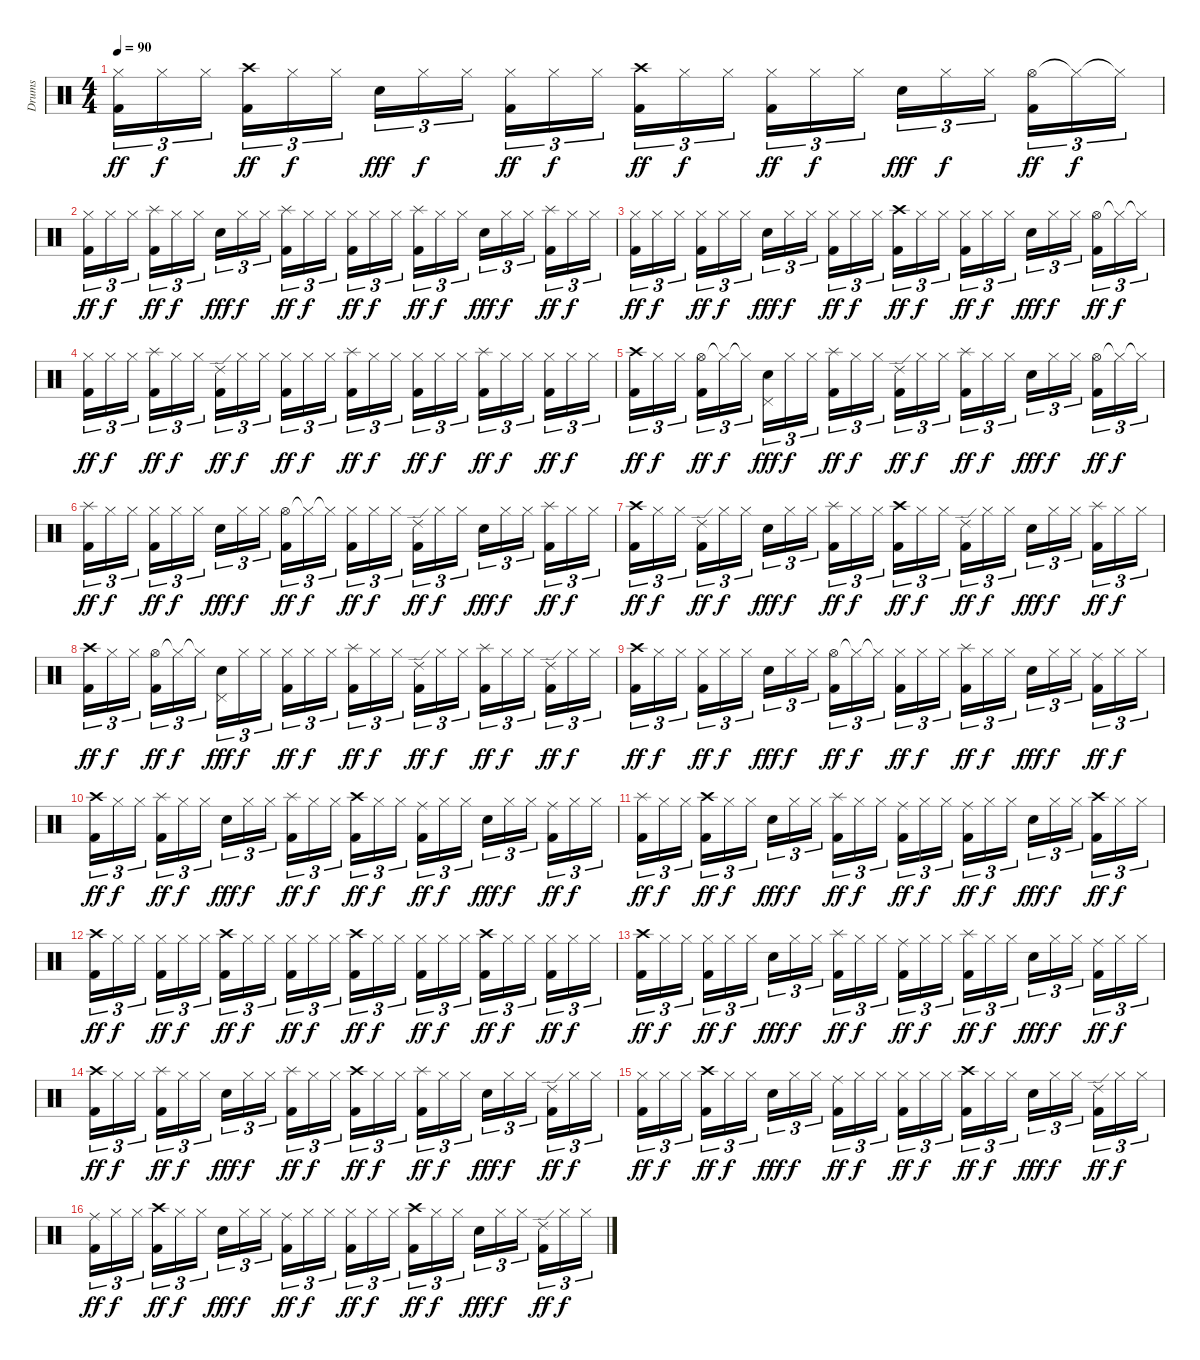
\track ("Drums" "Drums") {instrument percussion}
\staff {score}
\articulation defaults
\ts (4 4)
\tempo 90
\clef neutral
\ks c
("Hi-Hat (closed)" "Kick (hit) 2").16{tu (3 2) dy ff} "Hi-Hat (closed)".16{tu (3 2) dy f} "Hi-Hat (closed)".16{tu (3 2) beam splitsecondary} ("Crash high (hit)" "Kick (hit) 2").16{tu (3 2) dy ff} "Hi-Hat (closed)".16{tu (3 2) dy f} "Hi-Hat (closed)".16{tu (3 2)} "Snare (hit) 2".16{tu (3 2) dy fff} "Hi-Hat (closed)".16{tu (3 2) dy f} "Hi-Hat (closed)".16{tu (3 2) beam splitsecondary} ("Hi-Hat (closed)" "Kick (hit) 2").16{tu (3 2) dy ff} "Hi-Hat (closed)".16{tu (3 2) dy f} "Hi-Hat (closed)".16{tu (3 2)} ("Crash high (hit)" "Kick (hit) 2").16{tu (3 2) dy ff} "Hi-Hat (closed)".16{tu (3 2) dy f} "Hi-Hat (closed)".16{tu (3 2) beam splitsecondary} ("Hi-Hat (closed)" "Kick (hit) 2").16{tu (3 2) dy ff} "Hi-Hat (closed)".16{tu (3 2) dy f} "Hi-Hat (closed)".16{tu (3 2)} "Snare (hit) 2".16{tu (3 2) dy fff} "Hi-Hat (closed)".16{tu (3 2) dy f} "Hi-Hat (closed)".16{tu (3 2) beam splitsecondary} ("Hi-Hat (open)" "Kick (hit) 2").16{tu (3 2) dy ff} "Hi-Hat (closed)"{t}.16{tu (3 2) dy f} "Hi-Hat (closed)"{t}.16{tu (3 2)} |
("Hi-Hat (closed)" "Kick (hit) 2").16{tu (3 2) dy ff} "Hi-Hat (closed)".16{tu (3 2) dy f} "Hi-Hat (closed)".16{tu (3 2) beam splitsecondary} ("Splash (hit)" "Kick (hit) 2").16{tu (3 2) dy ff} "Hi-Hat (closed)".16{tu (3 2) dy f} "Hi-Hat (closed)".16{tu (3 2)} "Snare (hit) 2".16{tu (3 2) dy fff} "Hi-Hat (closed)".16{tu (3 2) dy f} "Hi-Hat (closed)".16{tu (3 2) beam splitsecondary} ("Splash (hit)" "Kick (hit) 2").16{tu (3 2) dy ff} "Hi-Hat (closed)".16{tu (3 2) dy f} "Hi-Hat (closed)".16{tu (3 2)} ("Hi-Hat (closed)" "Kick (hit) 2").16{tu (3 2) dy ff} "Hi-Hat (closed)".16{tu (3 2) dy f} "Hi-Hat (closed)".16{tu (3 2) beam splitsecondary} ("Splash (hit)" "Kick (hit) 2").16{tu (3 2) dy ff} "Hi-Hat (closed)".16{tu (3 2) dy f} "Hi-Hat (closed)".16{tu (3 2)} "Snare (hit) 2".16{tu (3 2) dy fff} "Hi-Hat (closed)".16{tu (3 2) dy f} "Hi-Hat (closed)".16{tu (3 2) beam splitsecondary} ("Splash (hit)" "Kick (hit) 2").16{tu (3 2) dy ff} "Hi-Hat (closed)".16{tu (3 2) dy f} "Hi-Hat (closed)".16{tu (3 2)} |
("Hi-Hat (closed)" "Kick (hit) 2").16{tu (3 2) dy ff} "Hi-Hat (closed)".16{tu (3 2) dy f} "Hi-Hat (closed)".16{tu (3 2) beam splitsecondary} ("Hi-Hat (closed)" "Kick (hit) 2").16{tu (3 2) dy ff} "Hi-Hat (closed)".16{tu (3 2) dy f} "Hi-Hat (closed)".16{tu (3 2)} "Snare (hit) 2".16{tu (3 2) dy fff} "Hi-Hat (closed)".16{tu (3 2) dy f} "Hi-Hat (closed)".16{tu (3 2) beam splitsecondary} ("Hi-Hat (closed)" "Kick (hit) 2").16{tu (3 2) dy ff} "Hi-Hat (closed)".16{tu (3 2) dy f} "Hi-Hat (closed)".16{tu (3 2)} ("Crash high (hit)" "Kick (hit) 2").16{tu (3 2) dy ff} "Hi-Hat (closed)".16{tu (3 2) dy f} "Hi-Hat (closed)".16{tu (3 2) beam splitsecondary} ("Hi-Hat (closed)" "Kick (hit) 2").16{tu (3 2) dy ff} "Hi-Hat (closed)".16{tu (3 2) dy f} "Hi-Hat (closed)".16{tu (3 2)} "Snare (hit) 2".16{tu (3 2) dy fff} "Hi-Hat (closed)".16{tu (3 2) dy f} "Hi-Hat (closed)".16{tu (3 2) beam splitsecondary} ("Hi-Hat (open)" "Kick (hit) 2").16{tu (3 2) dy ff} "Hi-Hat (closed)"{t}.16{tu (3 2) dy f} "Hi-Hat (closed)"{t}.16{tu (3 2)} |
("Hi-Hat (closed)" "Kick (hit) 2").16{tu (3 2) dy ff} "Hi-Hat (closed)".16{tu (3 2) dy f} "Hi-Hat (closed)".16{tu (3 2) beam splitsecondary} ("Splash (hit)" "Kick (hit) 2").16{tu (3 2) dy ff} "Hi-Hat (closed)".16{tu (3 2) dy f} "Hi-Hat (closed)".16{tu (3 2)} ("Ride (edge) 2" "Kick (hit) 2").16{tu (3 2) dy ff} "Hi-Hat (closed)".16{tu (3 2) dy f} "Hi-Hat (closed)".16{tu (3 2) beam splitsecondary} ("Hi-Hat (closed)" "Kick (hit) 2").16{tu (3 2) dy ff} "Hi-Hat (closed)".16{tu (3 2) dy f} "Hi-Hat (closed)".16{tu (3 2)} ("Splash (hit)" "Kick (hit) 2").16{tu (3 2) dy ff} "Hi-Hat (closed)".16{tu (3 2) dy f} "Hi-Hat (closed)".16{tu (3 2) beam splitsecondary} ("Hi-Hat (closed)" "Kick (hit) 2").16{tu (3 2) dy ff} "Hi-Hat (closed)".16{tu (3 2) dy f} "Hi-Hat (closed)".16{tu (3 2)} ("Splash (hit)" "Kick (hit) 2").16{tu (3 2) dy ff} "Hi-Hat (closed)".16{tu (3 2) dy f} "Hi-Hat (closed)".16{tu (3 2) beam splitsecondary} ("Hi-Hat (closed)" "Kick (hit) 2").16{tu (3 2) dy ff} "Hi-Hat (closed)".16{tu (3 2) dy f} "Hi-Hat (closed)".16{tu (3 2)} |
("Crash high (hit)" "Kick (hit) 2").16{tu (3 2) dy ff} "Hi-Hat (closed)".16{tu (3 2) dy f} "Hi-Hat (closed)".16{tu (3 2) beam splitsecondary} ("Hi-Hat (open)" "Kick (hit) 2").16{tu (3 2) dy ff} "Hi-Hat (closed)"{t}.16{tu (3 2) dy f} "Hi-Hat (closed)"{t}.16{tu (3 2)} ("Pedal Hi-Hat (hit)" "Snare (hit) 2").16{tu (3 2) dy fff} "Hi-Hat (closed)".16{tu (3 2) dy f} "Hi-Hat (closed)".16{tu (3 2) beam splitsecondary} ("Splash (hit)" "Kick (hit) 2").16{tu (3 2) dy ff} "Hi-Hat (closed)".16{tu (3 2) dy f} "Hi-Hat (closed)".16{tu (3 2)} ("Ride (edge) 2" "Kick (hit) 2").16{tu (3 2) dy ff} "Hi-Hat (closed)".16{tu (3 2) dy f} "Hi-Hat (closed)".16{tu (3 2) beam splitsecondary} ("Splash (hit)" "Kick (hit) 2").16{tu (3 2) dy ff} "Hi-Hat (closed)".16{tu (3 2) dy f} "Hi-Hat (closed)".16{tu (3 2)} "Snare (hit) 2".16{tu (3 2) dy fff} "Hi-Hat (closed)".16{tu (3 2) dy f} "Hi-Hat (closed)".16{tu (3 2) beam splitsecondary} ("Hi-Hat (open)" "Kick (hit) 2").16{tu (3 2) dy ff} "Hi-Hat (closed)"{t}.16{tu (3 2) dy f} "Hi-Hat (closed)"{t}.16{tu (3 2)} |
("Splash (hit)" "Kick (hit) 2").16{tu (3 2) dy ff} "Hi-Hat (closed)".16{tu (3 2) dy f} "Hi-Hat (closed)".16{tu (3 2) beam splitsecondary} ("Hi-Hat (closed)" "Kick (hit) 2").16{tu (3 2) dy ff} "Hi-Hat (closed)".16{tu (3 2) dy f} "Hi-Hat (closed)".16{tu (3 2)} "Snare (hit) 2".16{tu (3 2) dy fff} "Hi-Hat (closed)".16{tu (3 2) dy f} "Hi-Hat (closed)".16{tu (3 2) beam splitsecondary} ("Hi-Hat (open)" "Kick (hit) 2").16{tu (3 2) dy ff} "Hi-Hat (closed)"{t}.16{tu (3 2) dy f} "Hi-Hat (closed)"{t}.16{tu (3 2)} ("Hi-Hat (closed)" "Kick (hit) 2").16{tu (3 2) dy ff} "Hi-Hat (closed)".16{tu (3 2) dy f} "Hi-Hat (closed)".16{tu (3 2) beam splitsecondary} ("Ride (edge) 2" "Kick (hit) 2").16{tu (3 2) dy ff} "Hi-Hat (closed)".16{tu (3 2) dy f} "Hi-Hat (closed)".16{tu (3 2)} "Snare (hit) 2".16{tu (3 2) dy fff} "Hi-Hat (closed)".16{tu (3 2) dy f} "Hi-Hat (closed)".16{tu (3 2) beam splitsecondary} ("Splash (hit)" "Kick (hit) 2").16{tu (3 2) dy ff} "Hi-Hat (closed)".16{tu (3 2) dy f} "Hi-Hat (closed)".16{tu (3 2)} |
("Crash high (hit)" "Kick (hit) 2").16{tu (3 2) dy ff} "Hi-Hat (closed)".16{tu (3 2) dy f} "Hi-Hat (closed)".16{tu (3 2) beam splitsecondary} ("Ride (edge) 2" "Kick (hit) 2").16{tu (3 2) dy ff} "Hi-Hat (closed)".16{tu (3 2) dy f} "Hi-Hat (closed)".16{tu (3 2)} "Snare (hit) 2".16{tu (3 2) dy fff} "Hi-Hat (closed)".16{tu (3 2) dy f} "Hi-Hat (closed)".16{tu (3 2) beam splitsecondary} ("Splash (hit)" "Kick (hit) 2").16{tu (3 2) dy ff} "Hi-Hat (closed)".16{tu (3 2) dy f} "Hi-Hat (closed)".16{tu (3 2)} ("Crash high (hit)" "Kick (hit) 2").16{tu (3 2) dy ff} "Hi-Hat (closed)".16{tu (3 2) dy f} "Hi-Hat (closed)".16{tu (3 2) beam splitsecondary} ("Ride (edge) 2" "Kick (hit) 2").16{tu (3 2) dy ff} "Hi-Hat (closed)".16{tu (3 2) dy f} "Hi-Hat (closed)".16{tu (3 2)} "Snare (hit) 2".16{tu (3 2) dy fff} "Hi-Hat (closed)".16{tu (3 2) dy f} "Hi-Hat (closed)".16{tu (3 2) beam splitsecondary} ("Splash (hit)" "Kick (hit) 2").16{tu (3 2) dy ff} "Hi-Hat (closed)".16{tu (3 2) dy f} "Hi-Hat (closed)".16{tu (3 2)} |
("Crash high (hit)" "Kick (hit) 2").16{tu (3 2) dy ff} "Hi-Hat (closed)".16{tu (3 2) dy f} "Hi-Hat (closed)".16{tu (3 2) beam splitsecondary} ("Hi-Hat (open)" "Kick (hit) 2").16{tu (3 2) dy ff} "Hi-Hat (closed)"{t}.16{tu (3 2) dy f} "Hi-Hat (closed)"{t}.16{tu (3 2)} ("Pedal Hi-Hat (hit)" "Snare (hit) 2").16{tu (3 2) dy fff} "Hi-Hat (closed)".16{tu (3 2) dy f} "Hi-Hat (closed)".16{tu (3 2) beam splitsecondary} ("Hi-Hat (closed)" "Kick (hit) 2").16{tu (3 2) dy ff} "Hi-Hat (closed)".16{tu (3 2) dy f} "Hi-Hat (closed)".16{tu (3 2)} ("Splash (hit)" "Kick (hit) 2").16{tu (3 2) dy ff} "Hi-Hat (closed)".16{tu (3 2) dy f} "Hi-Hat (closed)".16{tu (3 2) beam splitsecondary} ("Ride (edge) 2" "Kick (hit) 2").16{tu (3 2) dy ff} "Hi-Hat (closed)".16{tu (3 2) dy f} "Hi-Hat (closed)".16{tu (3 2)} ("Splash (hit)" "Kick (hit) 2").16{tu (3 2) dy ff} "Hi-Hat (closed)".16{tu (3 2) dy f} "Hi-Hat (closed)".16{tu (3 2) beam splitsecondary} ("Ride (edge) 2" "Kick (hit) 2").16{tu (3 2) dy ff} "Hi-Hat (closed)".16{tu (3 2) dy f} "Hi-Hat (closed)".16{tu (3 2)} |
("Crash high (hit)" "Kick (hit) 2").16{tu (3 2) dy ff} "Hi-Hat (closed)".16{tu (3 2) dy f} "Hi-Hat (closed)".16{tu (3 2) beam splitsecondary} ("Hi-Hat (closed)" "Kick (hit) 2").16{tu (3 2) dy ff} "Hi-Hat (closed)".16{tu (3 2) dy f} "Hi-Hat (closed)".16{tu (3 2)} "Snare (hit) 2".16{tu (3 2) dy fff} "Hi-Hat (closed)".16{tu (3 2) dy f} "Hi-Hat (closed)".16{tu (3 2) beam splitsecondary} ("Hi-Hat (open)" "Kick (hit) 2").16{tu (3 2) dy ff} "Hi-Hat (closed)"{t}.16{tu (3 2) dy f} "Hi-Hat (closed)"{t}.16{tu (3 2)} ("Hi-Hat (closed)" "Kick (hit) 2").16{tu (3 2) dy ff} "Hi-Hat (closed)".16{tu (3 2) dy f} "Hi-Hat (closed)".16{tu (3 2) beam splitsecondary} ("Splash (hit)" "Kick (hit) 2").16{tu (3 2) dy ff} "Hi-Hat (closed)".16{tu (3 2) dy f} "Hi-Hat (closed)".16{tu (3 2)} "Snare (hit) 2".16{tu (3 2) dy fff} "Hi-Hat (closed)".16{tu (3 2) dy f} "Hi-Hat (closed)".16{tu (3 2) beam splitsecondary} ("Ride (middle)" "Kick (hit) 2").16{tu (3 2) dy ff} "Hi-Hat (closed)".16{tu (3 2) dy f} "Hi-Hat (closed)".16{tu (3 2)} |
("Crash high (hit)" "Kick (hit) 2").16{tu (3 2) dy ff} "Hi-Hat (closed)".16{tu (3 2) dy f} "Hi-Hat (closed)".16{tu (3 2) beam splitsecondary} ("Splash (hit)" "Kick (hit) 2").16{tu (3 2) dy ff} "Hi-Hat (closed)".16{tu (3 2) dy f} "Hi-Hat (closed)".16{tu (3 2)} "Snare (hit) 2".16{tu (3 2) dy fff} "Hi-Hat (closed)".16{tu (3 2) dy f} "Hi-Hat (closed)".16{tu (3 2) beam splitsecondary} ("Splash (hit)" "Kick (hit) 2").16{tu (3 2) dy ff} "Hi-Hat (closed)".16{tu (3 2) dy f} "Hi-Hat (closed)".16{tu (3 2)} ("Crash high (hit)" "Kick (hit) 2").16{tu (3 2) dy ff} "Hi-Hat (closed)".16{tu (3 2) dy f} "Hi-Hat (closed)".16{tu (3 2) beam splitsecondary} ("Ride (middle)" "Kick (hit) 2").16{tu (3 2) dy ff} "Hi-Hat (closed)".16{tu (3 2) dy f} "Hi-Hat (closed)".16{tu (3 2)} "Snare (hit) 2".16{tu (3 2) dy fff} "Hi-Hat (closed)".16{tu (3 2) dy f} "Hi-Hat (closed)".16{tu (3 2) beam splitsecondary} ("Ride (middle)" "Kick (hit) 2").16{tu (3 2) dy ff} "Hi-Hat (closed)".16{tu (3 2) dy f} "Hi-Hat (closed)".16{tu (3 2)} |
("Splash (hit)" "Kick (hit) 2").16{tu (3 2) dy ff} "Hi-Hat (closed)".16{tu (3 2) dy f} "Hi-Hat (closed)".16{tu (3 2) beam splitsecondary} ("Crash high (hit)" "Kick (hit) 2").16{tu (3 2) dy ff} "Hi-Hat (closed)".16{tu (3 2) dy f} "Hi-Hat (closed)".16{tu (3 2)} "Snare (hit) 2".16{tu (3 2) dy fff} "Hi-Hat (closed)".16{tu (3 2) dy f} "Hi-Hat (closed)".16{tu (3 2) beam splitsecondary} ("Splash (hit)" "Kick (hit) 2").16{tu (3 2) dy ff} "Hi-Hat (closed)".16{tu (3 2) dy f} "Hi-Hat (closed)".16{tu (3 2)} ("Ride (middle)" "Kick (hit) 2").16{tu (3 2) dy ff} "Hi-Hat (closed)".16{tu (3 2) dy f} "Hi-Hat (closed)".16{tu (3 2) beam splitsecondary} ("Ride (middle)" "Kick (hit) 2").16{tu (3 2) dy ff} "Hi-Hat (closed)".16{tu (3 2) dy f} "Hi-Hat (closed)".16{tu (3 2)} "Snare (hit) 2".16{tu (3 2) dy fff} "Hi-Hat (closed)".16{tu (3 2) dy f} "Hi-Hat (closed)".16{tu (3 2) beam splitsecondary} ("Crash high (hit)" "Kick (hit) 2").16{tu (3 2) dy ff} "Hi-Hat (closed)".16{tu (3 2) dy f} "Hi-Hat (closed)".16{tu (3 2)} |
("Crash high (hit)" "Kick (hit) 2").16{tu (3 2) dy ff} "Hi-Hat (closed)".16{tu (3 2) dy f} "Hi-Hat (closed)".16{tu (3 2) beam splitsecondary} ("Hi-Hat (closed)" "Kick (hit) 2").16{tu (3 2) dy ff} "Hi-Hat (closed)".16{tu (3 2) dy f} "Hi-Hat (closed)".16{tu (3 2)} ("Crash high (hit)" "Kick (hit) 2").16{tu (3 2) dy ff} "Hi-Hat (closed)".16{tu (3 2) dy f} "Hi-Hat (closed)".16{tu (3 2) beam splitsecondary} ("Hi-Hat (closed)" "Kick (hit) 2").16{tu (3 2) dy ff} "Hi-Hat (closed)".16{tu (3 2) dy f} "Hi-Hat (closed)".16{tu (3 2)} ("Crash high (hit)" "Kick (hit) 2").16{tu (3 2) dy ff} "Hi-Hat (closed)".16{tu (3 2) dy f} "Hi-Hat (closed)".16{tu (3 2) beam splitsecondary} ("Hi-Hat (closed)" "Kick (hit) 2").16{tu (3 2) dy ff} "Hi-Hat (closed)".16{tu (3 2) dy f} "Hi-Hat (closed)".16{tu (3 2)} ("Crash high (hit)" "Kick (hit) 2").16{tu (3 2) dy ff} "Hi-Hat (closed)".16{tu (3 2) dy f} "Hi-Hat (closed)".16{tu (3 2) beam splitsecondary} ("Hi-Hat (closed)" "Kick (hit) 2").16{tu (3 2) dy ff} "Hi-Hat (closed)".16{tu (3 2) dy f} "Hi-Hat (closed)".16{tu (3 2)} |
("Crash high (hit)" "Kick (hit) 2").16{tu (3 2) dy ff} "Hi-Hat (closed)".16{tu (3 2) dy f} "Hi-Hat (closed)".16{tu (3 2) beam splitsecondary} ("Hi-Hat (closed)" "Kick (hit) 2").16{tu (3 2) dy ff} "Hi-Hat (closed)".16{tu (3 2) dy f} "Hi-Hat (closed)".16{tu (3 2)} "Snare (hit) 2".16{tu (3 2) dy fff} "Hi-Hat (closed)".16{tu (3 2) dy f} "Hi-Hat (closed)".16{tu (3 2) beam splitsecondary} ("Splash (hit)" "Kick (hit) 2").16{tu (3 2) dy ff} "Hi-Hat (closed)".16{tu (3 2) dy f} "Hi-Hat (closed)".16{tu (3 2)} ("Ride (middle)" "Kick (hit) 2").16{tu (3 2) dy ff} "Hi-Hat (closed)".16{tu (3 2) dy f} "Hi-Hat (closed)".16{tu (3 2) beam splitsecondary} ("Splash (hit)" "Kick (hit) 2").16{tu (3 2) dy ff} "Hi-Hat (closed)".16{tu (3 2) dy f} "Hi-Hat (closed)".16{tu (3 2)} "Snare (hit) 2".16{tu (3 2) dy fff} "Hi-Hat (closed)".16{tu (3 2) dy f} "Hi-Hat (closed)".16{tu (3 2) beam splitsecondary} ("Ride (middle)" "Kick (hit) 2").16{tu (3 2) dy ff} "Hi-Hat (closed)".16{tu (3 2) dy f} "Hi-Hat (closed)".16{tu (3 2)} |
("Crash high (hit)" "Kick (hit) 2").16{tu (3 2) dy ff} "Hi-Hat (closed)".16{tu (3 2) dy f} "Hi-Hat (closed)".16{tu (3 2) beam splitsecondary} ("Splash (hit)" "Kick (hit) 2").16{tu (3 2) dy ff} "Hi-Hat (closed)".16{tu (3 2) dy f} "Hi-Hat (closed)".16{tu (3 2)} "Snare (hit) 2".16{tu (3 2) dy fff} "Hi-Hat (closed)".16{tu (3 2) dy f} "Hi-Hat (closed)".16{tu (3 2) beam splitsecondary} ("Splash (hit)" "Kick (hit) 2").16{tu (3 2) dy ff} "Hi-Hat (closed)".16{tu (3 2) dy f} "Hi-Hat (closed)".16{tu (3 2)} ("Crash high (hit)" "Kick (hit) 2").16{tu (3 2) dy ff} "Hi-Hat (closed)".16{tu (3 2) dy f} "Hi-Hat (closed)".16{tu (3 2) beam splitsecondary} ("Splash (hit)" "Kick (hit) 2").16{tu (3 2) dy ff} "Hi-Hat (closed)".16{tu (3 2) dy f} "Hi-Hat (closed)".16{tu (3 2)} "Snare (hit) 2".16{tu (3 2) dy fff} "Hi-Hat (closed)".16{tu (3 2) dy f} "Hi-Hat (closed)".16{tu (3 2) beam splitsecondary} ("Ride (edge) 2" "Kick (hit) 2").16{tu (3 2) dy ff} "Hi-Hat (closed)".16{tu (3 2) dy f} "Hi-Hat (closed)".16{tu (3 2)} |
("Hi-Hat (closed)" "Kick (hit) 2").16{tu (3 2) dy ff} "Hi-Hat (closed)".16{tu (3 2) dy f} "Hi-Hat (closed)".16{tu (3 2) beam splitsecondary} ("Crash high (hit)" "Kick (hit) 2").16{tu (3 2) dy ff} "Hi-Hat (closed)".16{tu (3 2) dy f} "Hi-Hat (closed)".16{tu (3 2)} "Snare (hit) 2".16{tu (3 2) dy fff} "Hi-Hat (closed)".16{tu (3 2) dy f} "Hi-Hat (closed)".16{tu (3 2) beam splitsecondary} ("Ride (middle)" "Kick (hit) 2").16{tu (3 2) dy ff} "Hi-Hat (closed)".16{tu (3 2) dy f} "Hi-Hat (closed)".16{tu (3 2)} ("Hi-Hat (closed)" "Kick (hit) 2").16{tu (3 2) dy ff} "Hi-Hat (closed)".16{tu (3 2) dy f} "Hi-Hat (closed)".16{tu (3 2) beam splitsecondary} ("Crash high (hit)" "Kick (hit) 2").16{tu (3 2) dy ff} "Hi-Hat (closed)".16{tu (3 2) dy f} "Hi-Hat (closed)".16{tu (3 2)} "Snare (hit) 2".16{tu (3 2) dy fff} "Hi-Hat (closed)".16{tu (3 2) dy f} "Hi-Hat (closed)".16{tu (3 2) beam splitsecondary} ("Ride (edge) 2" "Kick (hit) 2").16{tu (3 2) dy ff} "Hi-Hat (closed)".16{tu (3 2) dy f} "Hi-Hat (closed)".16{tu (3 2)} |
("Ride (middle)" "Kick (hit) 2").16{tu (3 2) dy ff} "Hi-Hat (closed)".16{tu (3 2) dy f} "Hi-Hat (closed)".16{tu (3 2) beam splitsecondary} ("Crash high (hit)" "Kick (hit) 2").16{tu (3 2) dy ff} "Hi-Hat (closed)".16{tu (3 2) dy f} "Hi-Hat (closed)".16{tu (3 2)} "Snare (hit) 2".16{tu (3 2) dy fff} "Hi-Hat (closed)".16{tu (3 2) dy f} "Hi-Hat (closed)".16{tu (3 2) beam splitsecondary} ("Ride (middle)" "Kick (hit) 2").16{tu (3 2) dy ff} "Hi-Hat (closed)".16{tu (3 2) dy f} "Hi-Hat (closed)".16{tu (3 2)} ("Hi-Hat (closed)" "Kick (hit) 2").16{tu (3 2) dy ff} "Hi-Hat (closed)".16{tu (3 2) dy f} "Hi-Hat (closed)".16{tu (3 2) beam splitsecondary} ("Crash high (hit)" "Kick (hit) 2").16{tu (3 2) dy ff} "Hi-Hat (closed)".16{tu (3 2) dy f} "Hi-Hat (closed)".16{tu (3 2)} "Snare (hit) 2".16{tu (3 2) dy fff} "Hi-Hat (closed)".16{tu (3 2) dy f} "Hi-Hat (closed)".16{tu (3 2) beam splitsecondary} ("Ride (edge) 2" "Kick (hit) 2").16{tu (3 2) dy ff} "Hi-Hat (closed)".16{tu (3 2) dy f} "Hi-Hat (closed)".16{tu (3 2)}
